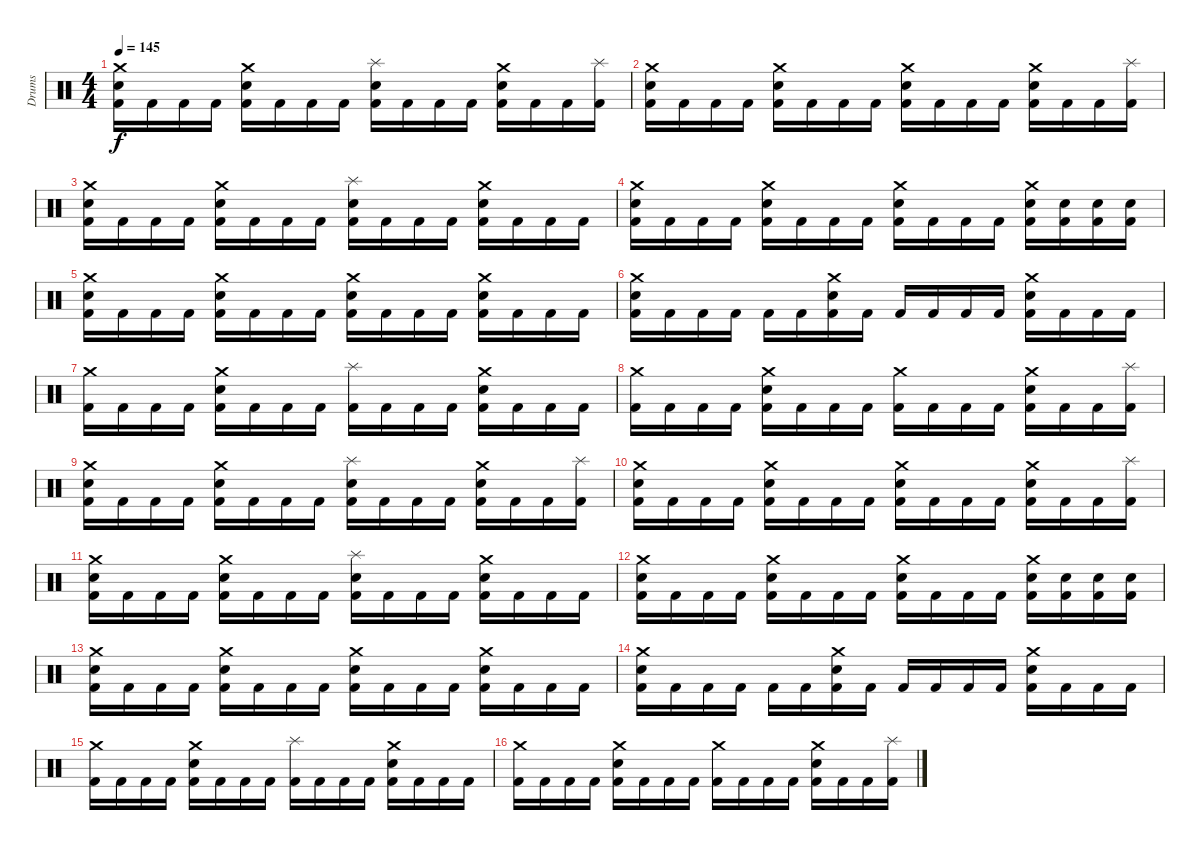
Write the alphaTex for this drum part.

\track ("Drums" "Drums") {instrument percussion}
\staff {score}
\articulation defaults
\ts (4 4)
\tempo 145
\clef neutral
\ks c
("Crash medium (hit)" "Electric Snare (hit)" "Kick (hit) 2").16{dy f} "Kick (hit) 2".16 "Kick (hit) 2".16 "Kick (hit) 2".16 ("Crash medium (hit)" "Electric Snare (hit)" "Kick (hit) 2").16 "Kick (hit) 2".16 "Kick (hit) 2".16 "Kick (hit) 2".16 ("Splash (hit)" "Electric Snare (hit)" "Kick (hit) 2").16 "Kick (hit) 2".16 "Kick (hit) 2".16 "Kick (hit) 2".16 ("Crash medium (hit)" "Electric Snare (hit)" "Kick (hit) 2").16 "Kick (hit) 2".16 "Kick (hit) 2".16 ("Splash (hit)" "Kick (hit) 2").16 |
("Crash medium (hit)" "Electric Snare (hit)" "Kick (hit) 2").16 "Kick (hit) 2".16 "Kick (hit) 2".16 "Kick (hit) 2".16 ("Crash medium (hit)" "Electric Snare (hit)" "Kick (hit) 2").16 "Kick (hit) 2".16 "Kick (hit) 2".16 "Kick (hit) 2".16 ("Crash medium (hit)" "Electric Snare (hit)" "Kick (hit) 2").16 "Kick (hit) 2".16 "Kick (hit) 2".16 "Kick (hit) 2".16 ("Crash medium (hit)" "Electric Snare (hit)" "Kick (hit) 2").16 "Kick (hit) 2".16 "Kick (hit) 2".16 ("Splash (hit)" "Kick (hit) 2").16 |
("Crash medium (hit)" "Electric Snare (hit)" "Kick (hit) 2").16 "Kick (hit) 2".16 "Kick (hit) 2".16 "Kick (hit) 2".16 ("Crash medium (hit)" "Electric Snare (hit)" "Kick (hit) 2").16 "Kick (hit) 2".16 "Kick (hit) 2".16 "Kick (hit) 2".16 ("Splash (hit)" "Electric Snare (hit)" "Kick (hit) 2").16 "Kick (hit) 2".16 "Kick (hit) 2".16 "Kick (hit) 2".16 ("Crash medium (hit)" "Electric Snare (hit)" "Kick (hit) 2").16 "Kick (hit) 2".16 "Kick (hit) 2".16 "Kick (hit) 2".16 |
("Crash medium (hit)" "Electric Snare (hit)" "Kick (hit) 2").16 "Kick (hit) 2".16 "Kick (hit) 2".16 "Kick (hit) 2".16 ("Crash medium (hit)" "Electric Snare (hit)" "Kick (hit) 2").16 "Kick (hit) 2".16 "Kick (hit) 2".16 "Kick (hit) 2".16 ("Crash medium (hit)" "Electric Snare (hit)" "Kick (hit) 2").16 "Kick (hit) 2".16 "Kick (hit) 2".16 "Kick (hit) 2".16 ("Crash medium (hit)" "Electric Snare (hit)" "Kick (hit) 2").16 ("Electric Snare (hit)" "Kick (hit) 2").16 ("Electric Snare (hit)" "Kick (hit) 2").16 ("Electric Snare (hit)" "Kick (hit) 2").16 |
("Crash medium (hit)" "Electric Snare (hit)" "Kick (hit) 2").16 "Kick (hit) 2".16 "Kick (hit) 2".16 "Kick (hit) 2".16 ("Crash medium (hit)" "Electric Snare (hit)" "Kick (hit) 2").16 "Kick (hit) 2".16 "Kick (hit) 2".16 "Kick (hit) 2".16 ("Crash medium (hit)" "Electric Snare (hit)" "Kick (hit) 2").16 "Kick (hit) 2".16 "Kick (hit) 2".16 "Kick (hit) 2".16 ("Crash medium (hit)" "Electric Snare (hit)" "Kick (hit) 2").16 "Kick (hit) 2".16 "Kick (hit) 2".16 "Kick (hit) 2".16 |
("Crash medium (hit)" "Electric Snare (hit)" "Kick (hit) 2").16 "Kick (hit) 2".16 "Kick (hit) 2".16 "Kick (hit) 2".16 "Kick (hit) 2".16 "Kick (hit) 2".16 ("Crash medium (hit)" "Electric Snare (hit)" "Kick (hit) 2").16 "Kick (hit) 2".16 "Kick (hit) 2".16 "Kick (hit) 2".16 "Kick (hit) 2".16 "Kick (hit) 2".16 ("Crash medium (hit)" "Electric Snare (hit)" "Kick (hit) 2").16 "Kick (hit) 2".16 "Kick (hit) 2".16 "Kick (hit) 2".16 |
("Crash medium (hit)" "Kick (hit) 2").16 "Kick (hit) 2".16 "Kick (hit) 2".16 "Kick (hit) 2".16 ("Crash medium (hit)" "Electric Snare (hit)" "Kick (hit) 2").16 "Kick (hit) 2".16 "Kick (hit) 2".16 "Kick (hit) 2".16 ("Splash (hit)" "Kick (hit) 2").16 "Kick (hit) 2".16 "Kick (hit) 2".16 "Kick (hit) 2".16 ("Crash medium (hit)" "Electric Snare (hit)" "Kick (hit) 2").16 "Kick (hit) 2".16 "Kick (hit) 2".16 "Kick (hit) 2".16 |
("Crash medium (hit)" "Kick (hit) 2").16 "Kick (hit) 2".16 "Kick (hit) 2".16 "Kick (hit) 2".16 ("Crash medium (hit)" "Electric Snare (hit)" "Kick (hit) 2").16 "Kick (hit) 2".16 "Kick (hit) 2".16 "Kick (hit) 2".16 ("Crash medium (hit)" "Kick (hit) 2").16 "Kick (hit) 2".16 "Kick (hit) 2".16 "Kick (hit) 2".16 ("Crash medium (hit)" "Electric Snare (hit)" "Kick (hit) 2").16 "Kick (hit) 2".16 "Kick (hit) 2".16 ("Splash (hit)" "Kick (hit) 2").16 |
("Crash medium (hit)" "Electric Snare (hit)" "Kick (hit) 2").16 "Kick (hit) 2".16 "Kick (hit) 2".16 "Kick (hit) 2".16 ("Crash medium (hit)" "Electric Snare (hit)" "Kick (hit) 2").16 "Kick (hit) 2".16 "Kick (hit) 2".16 "Kick (hit) 2".16 ("Splash (hit)" "Electric Snare (hit)" "Kick (hit) 2").16 "Kick (hit) 2".16 "Kick (hit) 2".16 "Kick (hit) 2".16 ("Crash medium (hit)" "Electric Snare (hit)" "Kick (hit) 2").16 "Kick (hit) 2".16 "Kick (hit) 2".16 ("Splash (hit)" "Kick (hit) 2").16 |
("Crash medium (hit)" "Electric Snare (hit)" "Kick (hit) 2").16 "Kick (hit) 2".16 "Kick (hit) 2".16 "Kick (hit) 2".16 ("Crash medium (hit)" "Electric Snare (hit)" "Kick (hit) 2").16 "Kick (hit) 2".16 "Kick (hit) 2".16 "Kick (hit) 2".16 ("Crash medium (hit)" "Electric Snare (hit)" "Kick (hit) 2").16 "Kick (hit) 2".16 "Kick (hit) 2".16 "Kick (hit) 2".16 ("Crash medium (hit)" "Electric Snare (hit)" "Kick (hit) 2").16 "Kick (hit) 2".16 "Kick (hit) 2".16 ("Splash (hit)" "Kick (hit) 2").16 |
("Crash medium (hit)" "Electric Snare (hit)" "Kick (hit) 2").16 "Kick (hit) 2".16 "Kick (hit) 2".16 "Kick (hit) 2".16 ("Crash medium (hit)" "Electric Snare (hit)" "Kick (hit) 2").16 "Kick (hit) 2".16 "Kick (hit) 2".16 "Kick (hit) 2".16 ("Splash (hit)" "Electric Snare (hit)" "Kick (hit) 2").16 "Kick (hit) 2".16 "Kick (hit) 2".16 "Kick (hit) 2".16 ("Crash medium (hit)" "Electric Snare (hit)" "Kick (hit) 2").16 "Kick (hit) 2".16 "Kick (hit) 2".16 "Kick (hit) 2".16 |
("Crash medium (hit)" "Electric Snare (hit)" "Kick (hit) 2").16 "Kick (hit) 2".16 "Kick (hit) 2".16 "Kick (hit) 2".16 ("Crash medium (hit)" "Electric Snare (hit)" "Kick (hit) 2").16 "Kick (hit) 2".16 "Kick (hit) 2".16 "Kick (hit) 2".16 ("Crash medium (hit)" "Electric Snare (hit)" "Kick (hit) 2").16 "Kick (hit) 2".16 "Kick (hit) 2".16 "Kick (hit) 2".16 ("Crash medium (hit)" "Electric Snare (hit)" "Kick (hit) 2").16 ("Electric Snare (hit)" "Kick (hit) 2").16 ("Electric Snare (hit)" "Kick (hit) 2").16 ("Electric Snare (hit)" "Kick (hit) 2").16 |
("Crash medium (hit)" "Electric Snare (hit)" "Kick (hit) 2").16 "Kick (hit) 2".16 "Kick (hit) 2".16 "Kick (hit) 2".16 ("Crash medium (hit)" "Electric Snare (hit)" "Kick (hit) 2").16 "Kick (hit) 2".16 "Kick (hit) 2".16 "Kick (hit) 2".16 ("Crash medium (hit)" "Electric Snare (hit)" "Kick (hit) 2").16 "Kick (hit) 2".16 "Kick (hit) 2".16 "Kick (hit) 2".16 ("Crash medium (hit)" "Electric Snare (hit)" "Kick (hit) 2").16 "Kick (hit) 2".16 "Kick (hit) 2".16 "Kick (hit) 2".16 |
("Crash medium (hit)" "Electric Snare (hit)" "Kick (hit) 2").16 "Kick (hit) 2".16 "Kick (hit) 2".16 "Kick (hit) 2".16 "Kick (hit) 2".16 "Kick (hit) 2".16 ("Crash medium (hit)" "Electric Snare (hit)" "Kick (hit) 2").16 "Kick (hit) 2".16 "Kick (hit) 2".16 "Kick (hit) 2".16 "Kick (hit) 2".16 "Kick (hit) 2".16 ("Crash medium (hit)" "Electric Snare (hit)" "Kick (hit) 2").16 "Kick (hit) 2".16 "Kick (hit) 2".16 "Kick (hit) 2".16 |
("Crash medium (hit)" "Kick (hit) 2").16 "Kick (hit) 2".16 "Kick (hit) 2".16 "Kick (hit) 2".16 ("Crash medium (hit)" "Electric Snare (hit)" "Kick (hit) 2").16 "Kick (hit) 2".16 "Kick (hit) 2".16 "Kick (hit) 2".16 ("Splash (hit)" "Kick (hit) 2").16 "Kick (hit) 2".16 "Kick (hit) 2".16 "Kick (hit) 2".16 ("Crash medium (hit)" "Electric Snare (hit)" "Kick (hit) 2").16 "Kick (hit) 2".16 "Kick (hit) 2".16 "Kick (hit) 2".16 |
("Crash medium (hit)" "Kick (hit) 2").16 "Kick (hit) 2".16 "Kick (hit) 2".16 "Kick (hit) 2".16 ("Crash medium (hit)" "Electric Snare (hit)" "Kick (hit) 2").16 "Kick (hit) 2".16 "Kick (hit) 2".16 "Kick (hit) 2".16 ("Crash medium (hit)" "Kick (hit) 2").16 "Kick (hit) 2".16 "Kick (hit) 2".16 "Kick (hit) 2".16 ("Crash medium (hit)" "Electric Snare (hit)" "Kick (hit) 2").16 "Kick (hit) 2".16 "Kick (hit) 2".16 ("Splash (hit)" "Kick (hit) 2").16
